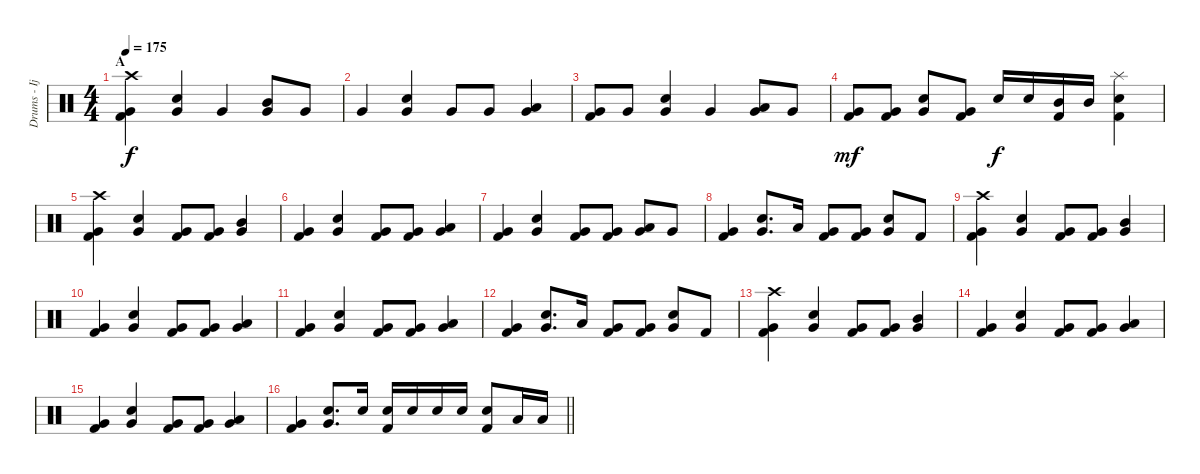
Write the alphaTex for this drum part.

\track ("Drums - Ijichi" "Drums - Ij") {instrument percussion}
\staff {score}
\articulation defaults
\ts (4 4)
\section ("" "A")
\tempo 175
\clef neutral
\ks c
("Crash high (hit)" "Very Low Tom (hit)" "Kick (hit) 2").4{dy f} ("Snare (hit) 2" "Very Low Tom (hit)").4 "Very Low Tom (hit)".4 ("Mid Tom (hit)" "Very Low Tom (hit)").8 "Very Low Tom (hit)".8 |
"Very Low Tom (hit)".4 ("Snare (hit) 2" "Very Low Tom (hit)").4 "Very Low Tom (hit)".8 "Very Low Tom (hit)".8 ("Low Tom (hit)" "Very Low Tom (hit)").4 |
("Very Low Tom (hit)" "Kick (hit) 2").8 "Very Low Tom (hit)".8 ("Snare (hit) 2" "Very Low Tom (hit)").4 "Very Low Tom (hit)".4 ("Low Tom (hit)" "Very Low Tom (hit)").8 "Very Low Tom (hit)".8 |
("Very Low Tom (hit)" "Kick (hit) 2").8{dy mf} ("Very Low Tom (hit)" "Kick (hit) 2").8 ("Snare (hit) 2" "Very Low Tom (hit)").8 ("Very Low Tom (hit)" "Kick (hit) 2").8 "Snare (hit) 2".16{dy f} "Snare (hit) 2".16 ("Mid Tom (hit)" "Kick (hit) 2").16 "Mid Tom (hit)".16 ("Splash (hit)" "Snare (hit) 2" "Kick (hit) 2").4 |
("Crash high (hit)" "Very Low Tom (hit)" "Kick (hit) 2").4 ("Snare (hit) 2" "Very Low Tom (hit)").4 ("Very Low Tom (hit)" "Kick (hit) 2").8 ("Very Low Tom (hit)" "Kick (hit) 2").8 ("Mid Tom (hit)" "Very Low Tom (hit)").4 |
("Very Low Tom (hit)" "Kick (hit) 2").4 ("Snare (hit) 2" "Very Low Tom (hit)").4 ("Very Low Tom (hit)" "Kick (hit) 2").8 ("Very Low Tom (hit)" "Kick (hit) 2").8 ("Low Tom (hit)" "Very Low Tom (hit)").4 |
("Very Low Tom (hit)" "Kick (hit) 2").4 ("Snare (hit) 2" "Very Low Tom (hit)").4 ("Very Low Tom (hit)" "Kick (hit) 2").8 ("Very Low Tom (hit)" "Kick (hit) 2").8 ("Low Tom (hit)" "Very Low Tom (hit)").8 "Very Low Tom (hit)".8 |
("Very Low Tom (hit)" "Kick (hit) 2").4 ("Snare (hit) 2" "Very Low Tom (hit)").8{d} "Low Tom (hit)".16 ("Very Low Tom (hit)" "Kick (hit) 2").8 ("Very Low Tom (hit)" "Kick (hit) 2").8 ("Snare (hit) 2" "Very Low Tom (hit)").8 "Kick (hit) 2".8 |
("Crash high (hit)" "Very Low Tom (hit)" "Kick (hit) 2").4 ("Snare (hit) 2" "Very Low Tom (hit)").4 ("Very Low Tom (hit)" "Kick (hit) 2").8 ("Very Low Tom (hit)" "Kick (hit) 2").8 ("Mid Tom (hit)" "Very Low Tom (hit)").4 |
("Very Low Tom (hit)" "Kick (hit) 2").4 ("Snare (hit) 2" "Very Low Tom (hit)").4 ("Very Low Tom (hit)" "Kick (hit) 2").8 ("Very Low Tom (hit)" "Kick (hit) 2").8 ("Low Tom (hit)" "Very Low Tom (hit)").4 |
("Very Low Tom (hit)" "Kick (hit) 2").4 ("Snare (hit) 2" "Very Low Tom (hit)").4 ("Very Low Tom (hit)" "Kick (hit) 2").8 ("Very Low Tom (hit)" "Kick (hit) 2").8 ("Low Tom (hit)" "Very Low Tom (hit)").4 |
("Very Low Tom (hit)" "Kick (hit) 2").4 ("Snare (hit) 2" "Very Low Tom (hit)").8{d} "Low Tom (hit)".16 ("Very Low Tom (hit)" "Kick (hit) 2").8 ("Very Low Tom (hit)" "Kick (hit) 2").8 ("Snare (hit) 2" "Very Low Tom (hit)").8 "Kick (hit) 2".8 |
("Crash high (hit)" "Very Low Tom (hit)" "Kick (hit) 2").4 ("Snare (hit) 2" "Very Low Tom (hit)").4 ("Very Low Tom (hit)" "Kick (hit) 2").8 ("Very Low Tom (hit)" "Kick (hit) 2").8 ("Mid Tom (hit)" "Very Low Tom (hit)").4 |
("Very Low Tom (hit)" "Kick (hit) 2").4 ("Snare (hit) 2" "Very Low Tom (hit)").4 ("Very Low Tom (hit)" "Kick (hit) 2").8 ("Very Low Tom (hit)" "Kick (hit) 2").8 ("Low Tom (hit)" "Very Low Tom (hit)").4 |
("Very Low Tom (hit)" "Kick (hit) 2").4 ("Snare (hit) 2" "Very Low Tom (hit)").4 ("Very Low Tom (hit)" "Kick (hit) 2").8 ("Very Low Tom (hit)" "Kick (hit) 2").8 ("Low Tom (hit)" "Very Low Tom (hit)").4 |
\barLineRight lightlight
("Very Low Tom (hit)" "Kick (hit) 2").4 ("Snare (hit) 2" "Very Low Tom (hit)").8{d} "Snare (hit) 2".16 ("Snare (hit) 2" "Kick (hit) 2").16 "Snare (hit) 2".16 "Snare (hit) 2".16 "Snare (hit) 2".16 ("Snare (hit) 2" "Kick (hit) 2").8 "Low Tom (hit)".16 "Low Tom (hit)".16
